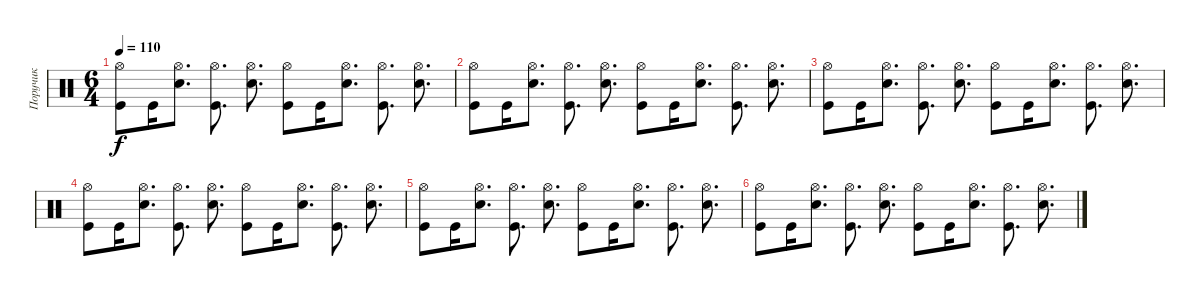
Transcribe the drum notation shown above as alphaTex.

\track ("Поручик" "Поручик") {instrument percussion}
\staff {score}
\articulation defaults
\ts (6 4)
\tempo 110
\clef neutral
\ks c
("Hi-Hat (open)" "Kick (hit)").8{dy f volume 8} "Kick (hit)".16 ("Hi-Hat (open)" "Snare (hit) 2").8{d} ("Hi-Hat (open)" "Kick (hit)").8{d} ("Hi-Hat (open)" "Snare (hit) 2").8{d} ("Hi-Hat (open)" "Kick (hit)").8 "Kick (hit)".16 ("Hi-Hat (open)" "Snare (hit) 2").8{d} ("Hi-Hat (open)" "Kick (hit)").8{d} ("Hi-Hat (open)" "Snare (hit) 2").8{d} |
("Hi-Hat (open)" "Kick (hit)").8{volume 7} "Kick (hit)".16 ("Hi-Hat (open)" "Snare (hit) 2").8{d} ("Hi-Hat (open)" "Kick (hit)").8{d} ("Hi-Hat (open)" "Snare (hit) 2").8{d} ("Hi-Hat (open)" "Kick (hit)").8 "Kick (hit)".16 ("Hi-Hat (open)" "Snare (hit) 2").8{d} ("Hi-Hat (open)" "Kick (hit)").8{d} ("Hi-Hat (open)" "Snare (hit) 2").8{d} |
("Hi-Hat (open)" "Kick (hit)").8{volume 6} "Kick (hit)".16 ("Hi-Hat (open)" "Snare (hit) 2").8{d} ("Hi-Hat (open)" "Kick (hit)").8{d} ("Hi-Hat (open)" "Snare (hit) 2").8{d} ("Hi-Hat (open)" "Kick (hit)").8 "Kick (hit)".16 ("Hi-Hat (open)" "Snare (hit) 2").8{d} ("Hi-Hat (open)" "Kick (hit)").8{d} ("Hi-Hat (open)" "Snare (hit) 2").8{d} |
("Hi-Hat (open)" "Kick (hit)").8{volume 4} "Kick (hit)".16 ("Hi-Hat (open)" "Snare (hit) 2").8{d} ("Hi-Hat (open)" "Kick (hit)").8{d} ("Hi-Hat (open)" "Snare (hit) 2").8{d} ("Hi-Hat (open)" "Kick (hit)").8 "Kick (hit)".16 ("Hi-Hat (open)" "Snare (hit) 2").8{d} ("Hi-Hat (open)" "Kick (hit)").8{d} ("Hi-Hat (open)" "Snare (hit) 2").8{d} |
("Hi-Hat (open)" "Kick (hit)").8{volume 2} "Kick (hit)".16 ("Hi-Hat (open)" "Snare (hit) 2").8{d} ("Hi-Hat (open)" "Kick (hit)").8{d} ("Hi-Hat (open)" "Snare (hit) 2").8{d} ("Hi-Hat (open)" "Kick (hit)").8 "Kick (hit)".16 ("Hi-Hat (open)" "Snare (hit) 2").8{d} ("Hi-Hat (open)" "Kick (hit)").8{d} ("Hi-Hat (open)" "Snare (hit) 2").8{d} |
("Hi-Hat (open)" "Kick (hit)").8{volume 0} "Kick (hit)".16 ("Hi-Hat (open)" "Snare (hit) 2").8{d} ("Hi-Hat (open)" "Kick (hit)").8{d} ("Hi-Hat (open)" "Snare (hit) 2").8{d} ("Hi-Hat (open)" "Kick (hit)").8 "Kick (hit)".16 ("Hi-Hat (open)" "Snare (hit) 2").8{d} ("Hi-Hat (open)" "Kick (hit)").8{d} ("Hi-Hat (open)" "Snare (hit) 2").8{d}
